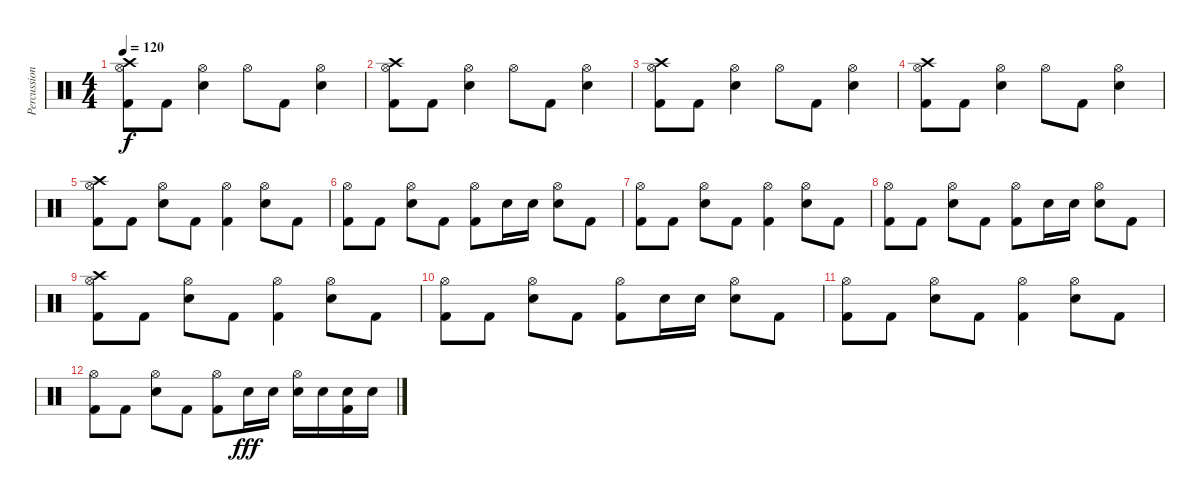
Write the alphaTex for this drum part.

\track ("Percussion" "Percussion") {instrument percussion}
\staff {score}
\articulation defaults
\ts (4 4)
\tempo 120
\clef neutral
\ks c
("Crash high (hit)" "Kick (hit) 2" "Hi-Hat (open)").8{dy f} "Kick (hit) 2".8 ("Electric Snare (hit)" "Hi-Hat (open)").4 "Hi-Hat (open)".8 "Kick (hit) 2".8 ("Electric Snare (hit)" "Hi-Hat (open)").4 |
("Crash high (hit)" "Kick (hit) 2" "Hi-Hat (open)").8 "Kick (hit) 2".8 ("Electric Snare (hit)" "Hi-Hat (open)").4 "Hi-Hat (open)".8 "Kick (hit) 2".8 ("Electric Snare (hit)" "Hi-Hat (open)").4 |
("Crash high (hit)" "Kick (hit) 2" "Hi-Hat (open)").8 "Kick (hit) 2".8 ("Electric Snare (hit)" "Hi-Hat (open)").4 "Hi-Hat (open)".8 "Kick (hit) 2".8 ("Electric Snare (hit)" "Hi-Hat (open)").4 |
("Crash high (hit)" "Kick (hit) 2" "Hi-Hat (open)").8 "Kick (hit) 2".8 ("Electric Snare (hit)" "Hi-Hat (open)").4 "Hi-Hat (open)".8 "Kick (hit) 2".8 ("Electric Snare (hit)" "Hi-Hat (open)").4 |
("Kick (hit) 2" "Crash high (hit)" "Hi-Hat (open)").8 "Kick (hit) 2".8 ("Electric Snare (hit)" "Hi-Hat (open)").8 "Kick (hit) 2".8 ("Kick (hit) 2" "Hi-Hat (open)").4 ("Electric Snare (hit)" "Hi-Hat (open)").8 "Kick (hit) 2".8 |
("Kick (hit) 2" "Hi-Hat (open)").8 "Kick (hit) 2".8 ("Electric Snare (hit)" "Hi-Hat (open)").8 "Kick (hit) 2".8 ("Kick (hit) 2" "Hi-Hat (open)").8 "Electric Snare (hit)".16 "Electric Snare (hit)".16 ("Electric Snare (hit)" "Hi-Hat (open)").8 "Kick (hit) 2".8 |
("Kick (hit) 2" "Hi-Hat (open)").8 "Kick (hit) 2".8 ("Electric Snare (hit)" "Hi-Hat (open)").8 "Kick (hit) 2".8 ("Kick (hit) 2" "Hi-Hat (open)").4 ("Electric Snare (hit)" "Hi-Hat (open)").8 "Kick (hit) 2".8 |
("Kick (hit) 2" "Hi-Hat (open)").8 "Kick (hit) 2".8 ("Electric Snare (hit)" "Hi-Hat (open)").8 "Kick (hit) 2".8 ("Kick (hit) 2" "Hi-Hat (open)").8 "Electric Snare (hit)".16 "Electric Snare (hit)".16 ("Electric Snare (hit)" "Hi-Hat (open)").8 "Kick (hit) 2".8 |
("Kick (hit) 2" "Crash high (hit)" "Hi-Hat (open)").8 "Kick (hit) 2".8 ("Electric Snare (hit)" "Hi-Hat (open)").8 "Kick (hit) 2".8 ("Kick (hit) 2" "Hi-Hat (open)").4 ("Electric Snare (hit)" "Hi-Hat (open)").8 "Kick (hit) 2".8 |
("Kick (hit) 2" "Hi-Hat (open)").8 "Kick (hit) 2".8 ("Electric Snare (hit)" "Hi-Hat (open)").8 "Kick (hit) 2".8 ("Kick (hit) 2" "Hi-Hat (open)").8 "Electric Snare (hit)".16 "Electric Snare (hit)".16 ("Electric Snare (hit)" "Hi-Hat (open)").8 "Kick (hit) 2".8 |
("Kick (hit) 2" "Hi-Hat (open)").8 "Kick (hit) 2".8 ("Electric Snare (hit)" "Hi-Hat (open)").8 "Kick (hit) 2".8 ("Kick (hit) 2" "Hi-Hat (open)").4 ("Electric Snare (hit)" "Hi-Hat (open)").8 "Kick (hit) 2".8 |
("Kick (hit) 2" "Hi-Hat (open)").8 "Kick (hit) 2".8 ("Electric Snare (hit)" "Hi-Hat (open)").8 "Kick (hit) 2".8 ("Kick (hit) 2" "Hi-Hat (open)").8 "Electric Snare (hit)".16{dy fff} "Electric Snare (hit)".16 ("Electric Snare (hit)" "Hi-Hat (open)").16 "Electric Snare (hit)".16 ("Kick (hit) 2" "Electric Snare (hit)").16 "Electric Snare (hit)".16
